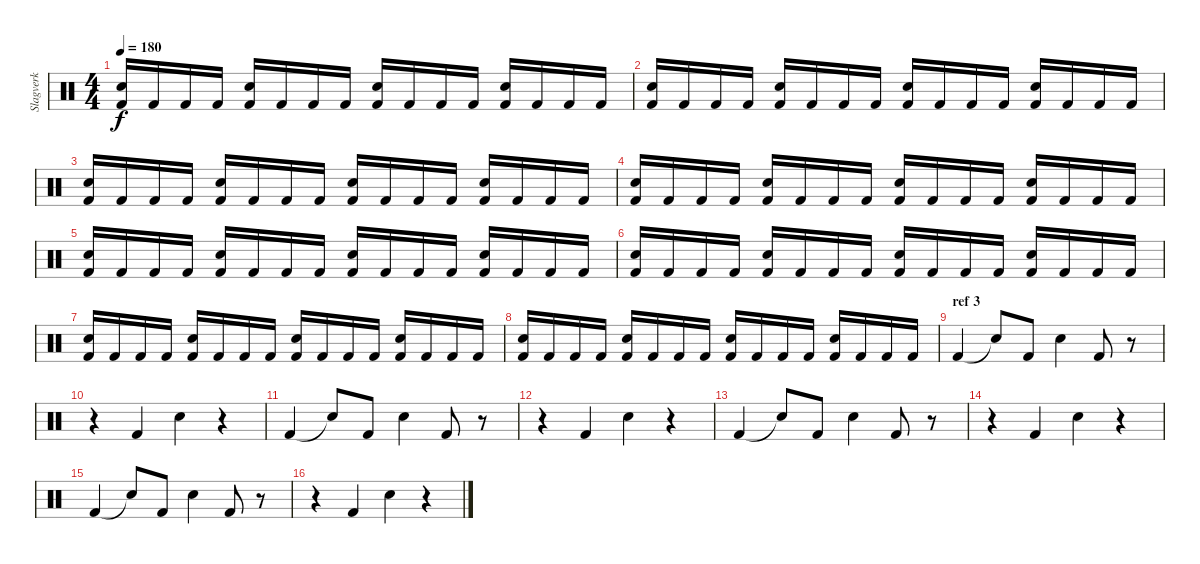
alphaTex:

\track ("Slagverk" "Slagverk") {instrument percussion}
\staff {score}
\articulation defaults
\ts (4 4)
\tempo 180
\clef neutral
\ks c
("Electric Snare (hit)" "Kick (hit) 2").16{dy f} "Kick (hit) 2".16 "Kick (hit) 2".16 "Kick (hit) 2".16 ("Electric Snare (hit)" "Kick (hit) 2").16 "Kick (hit) 2".16 "Kick (hit) 2".16 "Kick (hit) 2".16 ("Electric Snare (hit)" "Kick (hit) 2").16 "Kick (hit) 2".16 "Kick (hit) 2".16 "Kick (hit) 2".16 ("Electric Snare (hit)" "Kick (hit) 2").16 "Kick (hit) 2".16 "Kick (hit) 2".16 "Kick (hit) 2".16 |
("Electric Snare (hit)" "Kick (hit) 2").16 "Kick (hit) 2".16 "Kick (hit) 2".16 "Kick (hit) 2".16 ("Electric Snare (hit)" "Kick (hit) 2").16 "Kick (hit) 2".16 "Kick (hit) 2".16 "Kick (hit) 2".16 ("Electric Snare (hit)" "Kick (hit) 2").16 "Kick (hit) 2".16 "Kick (hit) 2".16 "Kick (hit) 2".16 ("Electric Snare (hit)" "Kick (hit) 2").16 "Kick (hit) 2".16 "Kick (hit) 2".16 "Kick (hit) 2".16 |
("Electric Snare (hit)" "Kick (hit) 2").16 "Kick (hit) 2".16 "Kick (hit) 2".16 "Kick (hit) 2".16 ("Electric Snare (hit)" "Kick (hit) 2").16 "Kick (hit) 2".16 "Kick (hit) 2".16 "Kick (hit) 2".16 ("Electric Snare (hit)" "Kick (hit) 2").16 "Kick (hit) 2".16 "Kick (hit) 2".16 "Kick (hit) 2".16 ("Electric Snare (hit)" "Kick (hit) 2").16 "Kick (hit) 2".16 "Kick (hit) 2".16 "Kick (hit) 2".16 |
("Electric Snare (hit)" "Kick (hit) 2").16 "Kick (hit) 2".16 "Kick (hit) 2".16 "Kick (hit) 2".16 ("Electric Snare (hit)" "Kick (hit) 2").16 "Kick (hit) 2".16 "Kick (hit) 2".16 "Kick (hit) 2".16 ("Electric Snare (hit)" "Kick (hit) 2").16 "Kick (hit) 2".16 "Kick (hit) 2".16 "Kick (hit) 2".16 ("Electric Snare (hit)" "Kick (hit) 2").16 "Kick (hit) 2".16 "Kick (hit) 2".16 "Kick (hit) 2".16 |
("Electric Snare (hit)" "Kick (hit) 2").16 "Kick (hit) 2".16 "Kick (hit) 2".16 "Kick (hit) 2".16 ("Electric Snare (hit)" "Kick (hit) 2").16 "Kick (hit) 2".16 "Kick (hit) 2".16 "Kick (hit) 2".16 ("Electric Snare (hit)" "Kick (hit) 2").16 "Kick (hit) 2".16 "Kick (hit) 2".16 "Kick (hit) 2".16 ("Electric Snare (hit)" "Kick (hit) 2").16 "Kick (hit) 2".16 "Kick (hit) 2".16 "Kick (hit) 2".16 |
("Electric Snare (hit)" "Kick (hit) 2").16 "Kick (hit) 2".16 "Kick (hit) 2".16 "Kick (hit) 2".16 ("Electric Snare (hit)" "Kick (hit) 2").16 "Kick (hit) 2".16 "Kick (hit) 2".16 "Kick (hit) 2".16 ("Electric Snare (hit)" "Kick (hit) 2").16 "Kick (hit) 2".16 "Kick (hit) 2".16 "Kick (hit) 2".16 ("Electric Snare (hit)" "Kick (hit) 2").16 "Kick (hit) 2".16 "Kick (hit) 2".16 "Kick (hit) 2".16 |
("Electric Snare (hit)" "Kick (hit) 2").16 "Kick (hit) 2".16 "Kick (hit) 2".16 "Kick (hit) 2".16 ("Electric Snare (hit)" "Kick (hit) 2").16 "Kick (hit) 2".16 "Kick (hit) 2".16 "Kick (hit) 2".16 ("Electric Snare (hit)" "Kick (hit) 2").16 "Kick (hit) 2".16 "Kick (hit) 2".16 "Kick (hit) 2".16 ("Electric Snare (hit)" "Kick (hit) 2").16 "Kick (hit) 2".16 "Kick (hit) 2".16 "Kick (hit) 2".16 |
("Electric Snare (hit)" "Kick (hit) 2").16 "Kick (hit) 2".16 "Kick (hit) 2".16 "Kick (hit) 2".16 ("Electric Snare (hit)" "Kick (hit) 2").16 "Kick (hit) 2".16 "Kick (hit) 2".16 "Kick (hit) 2".16 ("Electric Snare (hit)" "Kick (hit) 2").16 "Kick (hit) 2".16 "Kick (hit) 2".16 "Kick (hit) 2".16 ("Electric Snare (hit)" "Kick (hit) 2").16 "Kick (hit) 2".16 "Kick (hit) 2".16 "Kick (hit) 2".16 |
\section ("" "ref 3")
"Kick (hit) 2".4 "Snare (hit)"{t}.8 "Kick (hit) 2".8 "Electric Snare (hit)".4 "Kick (hit) 2".8 r.8 |
r.4 "Kick (hit) 2".4 "Electric Snare (hit)".4 r.4 |
"Kick (hit) 2".4 "Snare (hit)"{t}.8 "Kick (hit) 2".8 "Electric Snare (hit)".4 "Kick (hit) 2".8 r.8 |
r.4 "Kick (hit) 2".4 "Electric Snare (hit)".4 r.4 |
"Kick (hit) 2".4 "Snare (hit)"{t}.8 "Kick (hit) 2".8 "Electric Snare (hit)".4 "Kick (hit) 2".8 r.8 |
r.4 "Kick (hit) 2".4 "Electric Snare (hit)".4 r.4 |
"Kick (hit) 2".4 "Snare (hit)"{t}.8 "Kick (hit) 2".8 "Electric Snare (hit)".4 "Kick (hit) 2".8 r.8 |
r.4 "Kick (hit) 2".4 "Electric Snare (hit)".4 r.4
